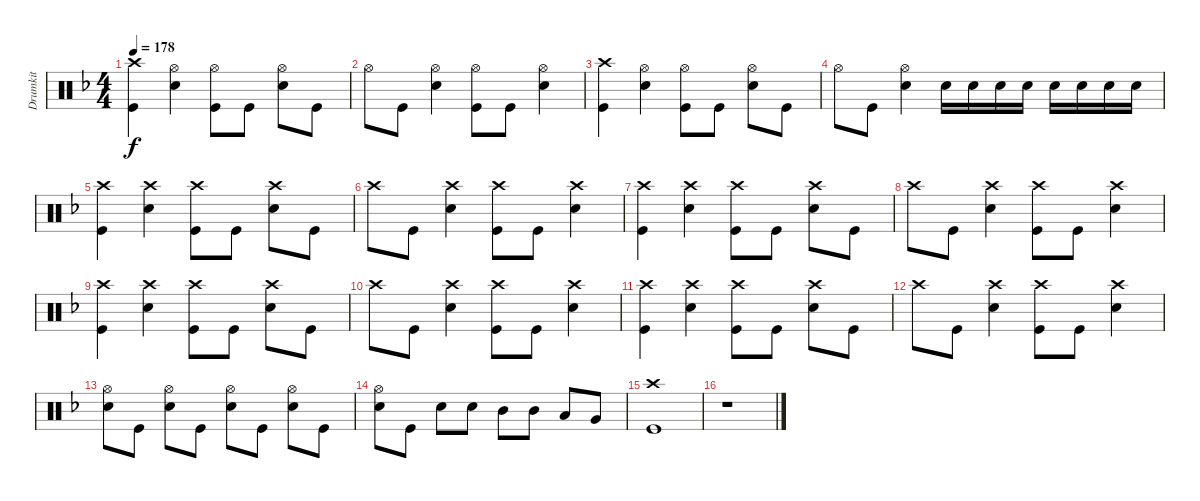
\track ("Drumkit" "Drumkit") {instrument percussion}
\staff {score}
\articulation defaults
\ts (4 4)
\tempo 178
\clef neutral
\ks f
("Crash high (hit)" "Kick (hit)").4{dy f} ("Hi-Hat (open)" "Snare (hit) 2").4 ("Hi-Hat (open)" "Kick (hit)").8 "Kick (hit)".8 ("Hi-Hat (open)" "Snare (hit) 2").8 "Kick (hit)".8 |
"Hi-Hat (open)".8 "Kick (hit)".8 ("Hi-Hat (open)" "Snare (hit) 2").4 ("Hi-Hat (open)" "Kick (hit)").8 "Kick (hit)".8 ("Hi-Hat (open)" "Snare (hit) 2").4 |
("Crash high (hit)" "Kick (hit)").4 ("Hi-Hat (open)" "Snare (hit) 2").4 ("Hi-Hat (open)" "Kick (hit)").8 "Kick (hit)".8 ("Hi-Hat (open)" "Snare (hit) 2").8 "Kick (hit)".8 |
"Hi-Hat (open)".8 "Kick (hit)".8 ("Hi-Hat (open)" "Snare (hit) 2").4 "Snare (hit) 2".16 "Snare (hit) 2".16 "Snare (hit) 2".16 "Snare (hit) 2".16 "Snare (hit) 2".16 "Snare (hit) 2".16 "Snare (hit) 2".16 "Snare (hit) 2".16 |
("Crash high (hit)" "Kick (hit)").4 ("Crash high (hit)" "Snare (hit) 2").4 ("Crash high (hit)" "Kick (hit)").8 "Kick (hit)".8 ("Crash high (hit)" "Snare (hit) 2").8 "Kick (hit)".8 |
"Crash high (hit)".8 "Kick (hit)".8 ("Crash high (hit)" "Snare (hit) 2").4 ("Crash high (hit)" "Kick (hit)").8 "Kick (hit)".8 ("Crash high (hit)" "Snare (hit) 2").4 |
("Crash high (hit)" "Kick (hit)").4 ("Crash high (hit)" "Snare (hit) 2").4 ("Crash high (hit)" "Kick (hit)").8 "Kick (hit)".8 ("Crash high (hit)" "Snare (hit) 2").8 "Kick (hit)".8 |
"Crash high (hit)".8 "Kick (hit)".8 ("Crash high (hit)" "Snare (hit) 2").4 ("Crash high (hit)" "Kick (hit)").8 "Kick (hit)".8 ("Crash high (hit)" "Snare (hit) 2").4 |
("Crash high (hit)" "Kick (hit)").4 ("Crash high (hit)" "Snare (hit) 2").4 ("Crash high (hit)" "Kick (hit)").8 "Kick (hit)".8 ("Crash high (hit)" "Snare (hit) 2").8 "Kick (hit)".8 |
"Crash high (hit)".8 "Kick (hit)".8 ("Crash high (hit)" "Snare (hit) 2").4 ("Crash high (hit)" "Kick (hit)").8 "Kick (hit)".8 ("Crash high (hit)" "Snare (hit) 2").4 |
("Crash high (hit)" "Kick (hit)").4 ("Crash high (hit)" "Snare (hit) 2").4 ("Crash high (hit)" "Kick (hit)").8 "Kick (hit)".8 ("Crash high (hit)" "Snare (hit) 2").8 "Kick (hit)".8 |
"Crash high (hit)".8 "Kick (hit)".8 ("Crash high (hit)" "Snare (hit) 2").4 ("Crash high (hit)" "Kick (hit)").8 "Kick (hit)".8 ("Crash high (hit)" "Snare (hit) 2").4 |
("Hi-Hat (open)" "Snare (hit) 2").8 "Kick (hit)".8 ("Hi-Hat (open)" "Snare (hit) 2").8 "Kick (hit)".8 ("Hi-Hat (open)" "Snare (hit) 2").8 "Kick (hit)".8 ("Hi-Hat (open)" "Snare (hit) 2").8 "Kick (hit)".8 |
("Hi-Hat (open)" "Snare (hit) 2").8 "Kick (hit)".8 "Snare (hit) 2".8 "Snare (hit) 2".8 "Mid Tom (hit)".8 "Mid Tom (hit)".8 "Low Tom (hit)".8 "Very Low Tom (hit)".8 |
("Crash high (hit)" "Kick (hit)").1 |
r.1
